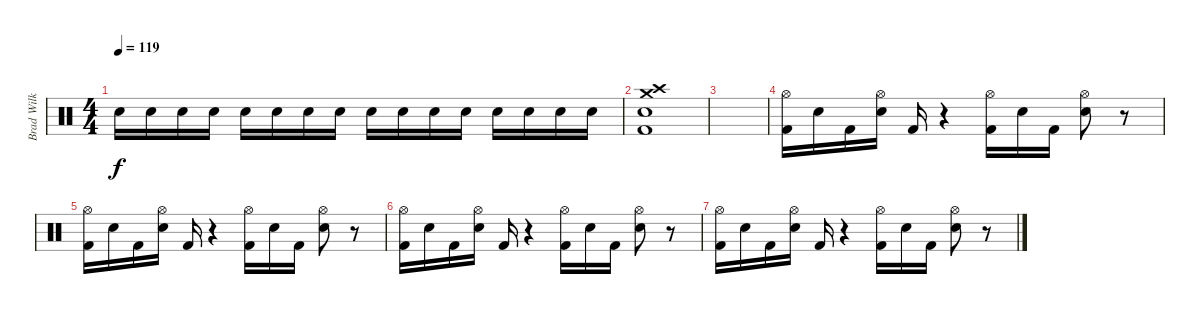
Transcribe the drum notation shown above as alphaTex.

\track ("Brad Wilk" "Brad Wilk") {instrument percussion}
\staff {score}
\articulation defaults
\ts (4 4)
\tempo 119
\clef neutral
\ks c "Electric Snare (hit)".16{dy f} "Electric Snare (hit)".16 "Electric Snare (hit)".16 "Electric Snare (hit)".16 "Electric Snare (hit)".16 "Electric Snare (hit)".16 "Electric Snare (hit)".16 "Electric Snare (hit)".16 "Electric Snare (hit)".16 "Electric Snare (hit)".16 "Electric Snare (hit)".16 "Electric Snare (hit)".16 "Electric Snare (hit)".16 "Electric Snare (hit)".16 "Electric Snare (hit)".16 "Electric Snare (hit)".16
|
("Crash high (hit)" "Crash medium (hit)" "Electric Snare (hit)" "Kick (hit) 2").1 |
|
("Hi-Hat (open)" "Kick (hit) 2").16 "Electric Snare (hit)".16 "Kick (hit) 2".16 ("Hi-Hat (open)" "Electric Snare (hit)").16 "Kick (hit) 2".16 r.4 ("Hi-Hat (open)" "Kick (hit) 2").16 "Electric Snare (hit)".16 "Kick (hit) 2".16 ("Hi-Hat (open)" "Electric Snare (hit)").8 r.8 |
("Hi-Hat (open)" "Kick (hit) 2").16 "Electric Snare (hit)".16 "Kick (hit) 2".16 ("Hi-Hat (open)" "Electric Snare (hit)").16 "Kick (hit) 2".16 r.4 ("Hi-Hat (open)" "Kick (hit) 2").16 "Electric Snare (hit)".16 "Kick (hit) 2".16 ("Hi-Hat (open)" "Electric Snare (hit)").8 r.8 |
("Hi-Hat (open)" "Kick (hit) 2").16 "Electric Snare (hit)".16 "Kick (hit) 2".16 ("Hi-Hat (open)" "Electric Snare (hit)").16 "Kick (hit) 2".16 r.4 ("Hi-Hat (open)" "Kick (hit) 2").16 "Electric Snare (hit)".16 "Kick (hit) 2".16 ("Hi-Hat (open)" "Electric Snare (hit)").8 r.8 |
("Hi-Hat (open)" "Kick (hit) 2").16 "Electric Snare (hit)".16 "Kick (hit) 2".16 ("Hi-Hat (open)" "Electric Snare (hit)").16 "Kick (hit) 2".16 r.4 ("Hi-Hat (open)" "Kick (hit) 2").16 "Electric Snare (hit)".16 "Kick (hit) 2".16 ("Hi-Hat (open)" "Electric Snare (hit)").8 r.8
